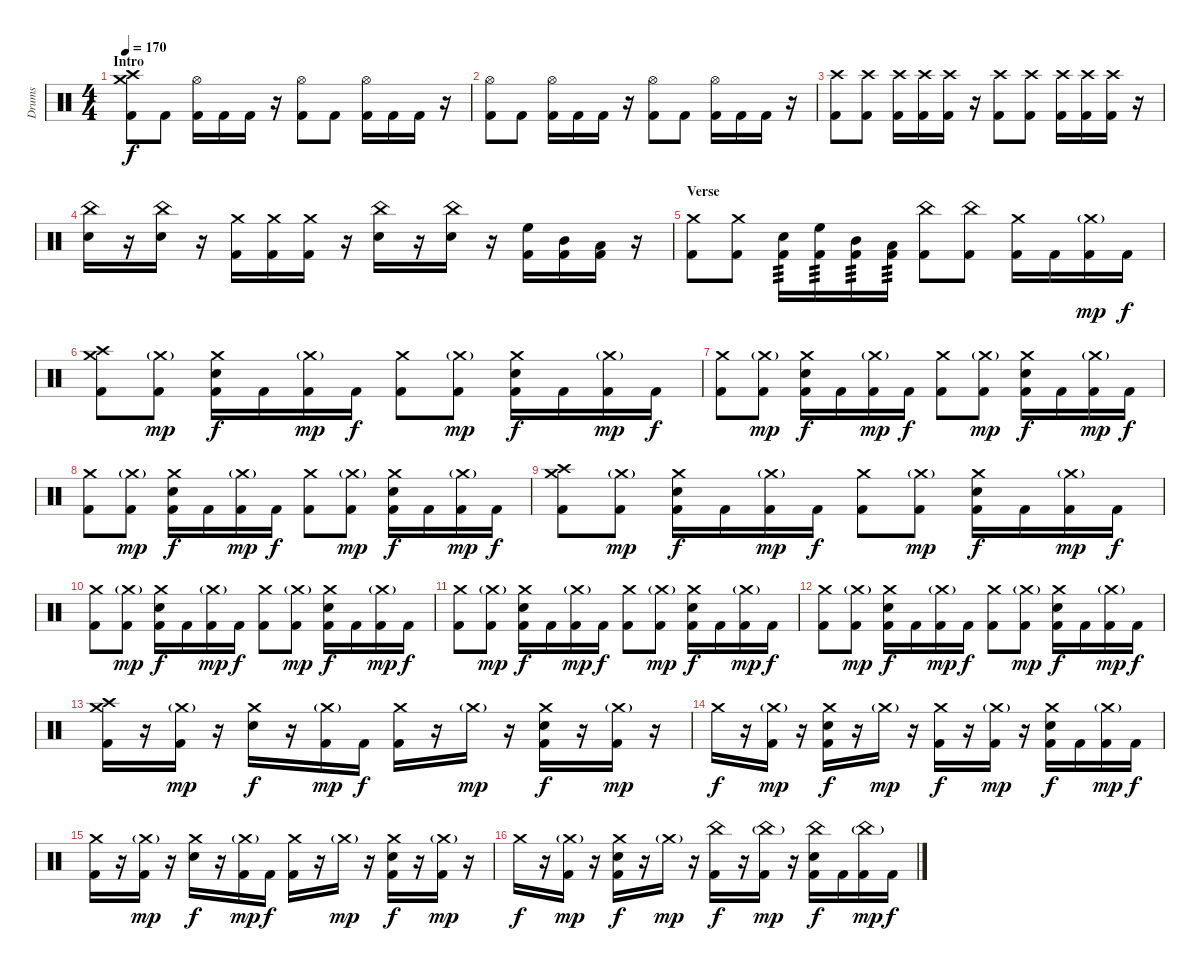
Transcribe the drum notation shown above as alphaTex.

\track ("Drums" "Drums") {instrument percussion}
\staff {score}
\articulation defaults
\ts (4 4)
\section ("" "Intro")
\tempo 170
\clef neutral
\ks c
("Crash high (hit)" "Crash medium (hit)" "Kick (hit) 2").8{dy f} "Kick (hit) 2".8 ("Hi-Hat (open)" "Kick (hit) 2").16 "Kick (hit) 2".16 "Kick (hit) 2".16 r.16 ("Hi-Hat (open)" "Kick (hit) 2").8 "Kick (hit) 2".8 ("Hi-Hat (open)" "Kick (hit) 2").16 "Kick (hit) 2".16 "Kick (hit) 2".16 r.16 |
("Hi-Hat (open)" "Kick (hit) 2").8 "Kick (hit) 2".8 ("Hi-Hat (open)" "Kick (hit) 2").16 "Kick (hit) 2".16 "Kick (hit) 2".16 r.16 ("Hi-Hat (open)" "Kick (hit) 2").8 "Kick (hit) 2".8 ("Hi-Hat (open)" "Kick (hit) 2").16 "Kick (hit) 2".16 "Kick (hit) 2".16 r.16 |
("Crash high (hit)" "Kick (hit) 2").8 ("Crash high (hit)" "Kick (hit) 2").8 ("Crash high (hit)" "Kick (hit) 2").16 ("Crash high (hit)" "Kick (hit) 2").16 ("Crash high (hit)" "Kick (hit) 2").16 r.16 ("Crash high (hit)" "Kick (hit) 2").8 ("Crash high (hit)" "Kick (hit) 2").8 ("Crash high (hit)" "Kick (hit) 2").16 ("Crash high (hit)" "Kick (hit) 2").16 ("Crash high (hit)" "Kick (hit) 2").16 r.16 |
("China (hit)" "Electric Snare (hit)").16 r.16 ("China (hit)" "Electric Snare (hit)").16 r.16 ("Crash medium (hit)" "Kick (hit) 2").16 ("Crash medium (hit)" "Kick (hit) 2").16 ("Crash medium (hit)" "Kick (hit) 2").16 r.16 ("China (hit)" "Electric Snare (hit)").16 r.16 ("China (hit)" "Electric Snare (hit)").16 r.16 ("High Floor Tom (hit)" "Kick (hit) 2").16 ("Mid Tom (hit)" "Kick (hit) 2").16 ("Low Tom (hit)" "Kick (hit) 2").16 r.16 |
\section ("" "Verse")
("Crash medium (hit)" "Kick (hit) 2").8 ("Crash medium (hit)" "Kick (hit) 2").8 ("Electric Snare (hit)" "Kick (hit) 2").16{tp 3} ("High Floor Tom (hit)" "Kick (hit) 2").16{tp 3} ("Mid Tom (hit)" "Kick (hit) 2").16{tp 3} ("Low Tom (hit)" "Kick (hit) 2").16{tp 3} ("China (hit)" "Kick (hit) 2").8 ("China (hit)" "Kick (hit) 2").8 ("Crash medium (hit)" "Kick (hit) 2").16 "Kick (hit) 2".16 ("Crash medium (hit)"{g} "Kick (hit) 2").16{dy mp} "Kick (hit) 2".16{dy f} |
("Crash medium (hit)" "Crash high (hit)" "Kick (hit) 2").8 ("Crash medium (hit)"{g} "Kick (hit) 2").8{dy mp} ("Crash medium (hit)" "Electric Snare (hit)" "Kick (hit) 2").16{dy f} "Kick (hit) 2".16 ("Crash medium (hit)"{g} "Kick (hit) 2").16{dy mp} "Kick (hit) 2".16{dy f} ("Crash medium (hit)" "Kick (hit) 2").8 ("Crash medium (hit)"{g} "Kick (hit) 2").8{dy mp} ("Crash medium (hit)" "Electric Snare (hit)" "Kick (hit) 2").16{dy f} "Kick (hit) 2".16 ("Crash medium (hit)"{g} "Kick (hit) 2").16{dy mp} "Kick (hit) 2".16{dy f} |
("Crash medium (hit)" "Kick (hit) 2").8 ("Crash medium (hit)"{g} "Kick (hit) 2").8{dy mp} ("Crash medium (hit)" "Electric Snare (hit)" "Kick (hit) 2").16{dy f} "Kick (hit) 2".16 ("Crash medium (hit)"{g} "Kick (hit) 2").16{dy mp} "Kick (hit) 2".16{dy f} ("Crash medium (hit)" "Kick (hit) 2").8 ("Crash medium (hit)"{g} "Kick (hit) 2").8{dy mp} ("Crash medium (hit)" "Electric Snare (hit)" "Kick (hit) 2").16{dy f} "Kick (hit) 2".16 ("Crash medium (hit)"{g} "Kick (hit) 2").16{dy mp} "Kick (hit) 2".16{dy f} |
("Crash medium (hit)" "Kick (hit) 2").8 ("Crash medium (hit)"{g} "Kick (hit) 2").8{dy mp} ("Crash medium (hit)" "Electric Snare (hit)" "Kick (hit) 2").16{dy f} "Kick (hit) 2".16 ("Crash medium (hit)"{g} "Kick (hit) 2").16{dy mp} "Kick (hit) 2".16{dy f} ("Crash medium (hit)" "Kick (hit) 2").8 ("Crash medium (hit)"{g} "Kick (hit) 2").8{dy mp} ("Crash medium (hit)" "Electric Snare (hit)" "Kick (hit) 2").16{dy f} "Kick (hit) 2".16 ("Crash medium (hit)"{g} "Kick (hit) 2").16{dy mp} "Kick (hit) 2".16{dy f} |
("Crash medium (hit)" "Crash high (hit)" "Kick (hit) 2").8 ("Crash medium (hit)"{g} "Kick (hit) 2").8{dy mp} ("Crash medium (hit)" "Electric Snare (hit)" "Kick (hit) 2").16{dy f} "Kick (hit) 2".16 ("Crash medium (hit)"{g} "Kick (hit) 2").16{dy mp} "Kick (hit) 2".16{dy f} ("Crash medium (hit)" "Kick (hit) 2").8 ("Crash medium (hit)"{g} "Kick (hit) 2").8{dy mp} ("Crash medium (hit)" "Electric Snare (hit)" "Kick (hit) 2").16{dy f} "Kick (hit) 2".16 ("Crash medium (hit)"{g} "Kick (hit) 2").16{dy mp} "Kick (hit) 2".16{dy f} |
("Crash medium (hit)" "Kick (hit) 2").8 ("Crash medium (hit)"{g} "Kick (hit) 2").8{dy mp} ("Crash medium (hit)" "Electric Snare (hit)" "Kick (hit) 2").16{dy f} "Kick (hit) 2".16 ("Crash medium (hit)"{g} "Kick (hit) 2").16{dy mp} "Kick (hit) 2".16{dy f} ("Crash medium (hit)" "Kick (hit) 2").8 ("Crash medium (hit)"{g} "Kick (hit) 2").8{dy mp} ("Crash medium (hit)" "Electric Snare (hit)" "Kick (hit) 2").16{dy f} "Kick (hit) 2".16 ("Crash medium (hit)"{g} "Kick (hit) 2").16{dy mp} "Kick (hit) 2".16{dy f} |
("Crash medium (hit)" "Kick (hit) 2").8 ("Crash medium (hit)"{g} "Kick (hit) 2").8{dy mp} ("Crash medium (hit)" "Electric Snare (hit)" "Kick (hit) 2").16{dy f} "Kick (hit) 2".16 ("Crash medium (hit)"{g} "Kick (hit) 2").16{dy mp} "Kick (hit) 2".16{dy f} ("Crash medium (hit)" "Kick (hit) 2").8 ("Crash medium (hit)"{g} "Kick (hit) 2").8{dy mp} ("Crash medium (hit)" "Electric Snare (hit)" "Kick (hit) 2").16{dy f} "Kick (hit) 2".16 ("Crash medium (hit)"{g} "Kick (hit) 2").16{dy mp} "Kick (hit) 2".16{dy f} |
("Crash medium (hit)" "Kick (hit) 2").8 ("Crash medium (hit)"{g} "Kick (hit) 2").8{dy mp} ("Crash medium (hit)" "Electric Snare (hit)" "Kick (hit) 2").16{dy f} "Kick (hit) 2".16 ("Crash medium (hit)"{g} "Kick (hit) 2").16{dy mp} "Kick (hit) 2".16{dy f} ("Crash medium (hit)" "Kick (hit) 2").8 ("Crash medium (hit)"{g} "Kick (hit) 2").8{dy mp} ("Crash medium (hit)" "Electric Snare (hit)" "Kick (hit) 2").16{dy f} "Kick (hit) 2".16 ("Crash medium (hit)"{g} "Kick (hit) 2").16{dy mp} "Kick (hit) 2".16{dy f} |
("Crash medium (hit)" "Crash high (hit)" "Kick (hit) 2").16 r.16 ("Crash medium (hit)"{g} "Kick (hit) 2").16{dy mp} r.16 ("Crash medium (hit)" "Electric Snare (hit)").16{dy f} r.16 ("Crash medium (hit)"{g} "Kick (hit) 2").16{dy mp} "Kick (hit) 2".16{dy f} ("Crash medium (hit)" "Kick (hit) 2").16 r.16 "Crash medium (hit)"{g}.16{dy mp} r.16 ("Crash medium (hit)" "Electric Snare (hit)" "Kick (hit) 2").16{dy f} r.16 ("Crash medium (hit)"{g} "Kick (hit) 2").16{dy mp} r.16 |
"Crash medium (hit)".16{dy f} r.16 ("Crash medium (hit)"{g} "Kick (hit) 2").16{dy mp} r.16 ("Crash medium (hit)" "Electric Snare (hit)" "Kick (hit) 2").16{dy f} r.16 "Crash medium (hit)"{g}.16{dy mp} r.16 ("Crash medium (hit)" "Kick (hit) 2").16{dy f} r.16 ("Crash medium (hit)"{g} "Kick (hit) 2").16{dy mp} r.16 ("Crash medium (hit)" "Electric Snare (hit)" "Kick (hit) 2").16{dy f} "Kick (hit) 2".16 ("Crash medium (hit)"{g} "Kick (hit) 2").16{dy mp} "Kick (hit) 2".16{dy f} |
("Crash medium (hit)" "Kick (hit) 2").16 r.16 ("Crash medium (hit)"{g} "Kick (hit) 2").16{dy mp} r.16 ("Crash medium (hit)" "Electric Snare (hit)").16{dy f} r.16 ("Crash medium (hit)"{g} "Kick (hit) 2").16{dy mp} "Kick (hit) 2".16{dy f} ("Crash medium (hit)" "Kick (hit) 2").16 r.16 "Crash medium (hit)"{g}.16{dy mp} r.16 ("Crash medium (hit)" "Electric Snare (hit)" "Kick (hit) 2").16{dy f} r.16 ("Crash medium (hit)"{g} "Kick (hit) 2").16{dy mp} r.16 |
"Crash medium (hit)".16{dy f} r.16 ("Crash medium (hit)"{g} "Kick (hit) 2").16{dy mp} r.16 ("Crash medium (hit)" "Electric Snare (hit)" "Kick (hit) 2").16{dy f} r.16 "Crash medium (hit)"{g}.16{dy mp} r.16 ("China (hit)" "Kick (hit) 2").16{dy f} r.16 ("China (hit)"{g} "Kick (hit) 2").16{dy mp} r.16 ("China (hit)" "Electric Snare (hit)" "Kick (hit) 2").16{dy f} "Kick (hit) 2".16 ("China (hit)"{g} "Kick (hit) 2").16{dy mp} "Kick (hit) 2".16{dy f}
